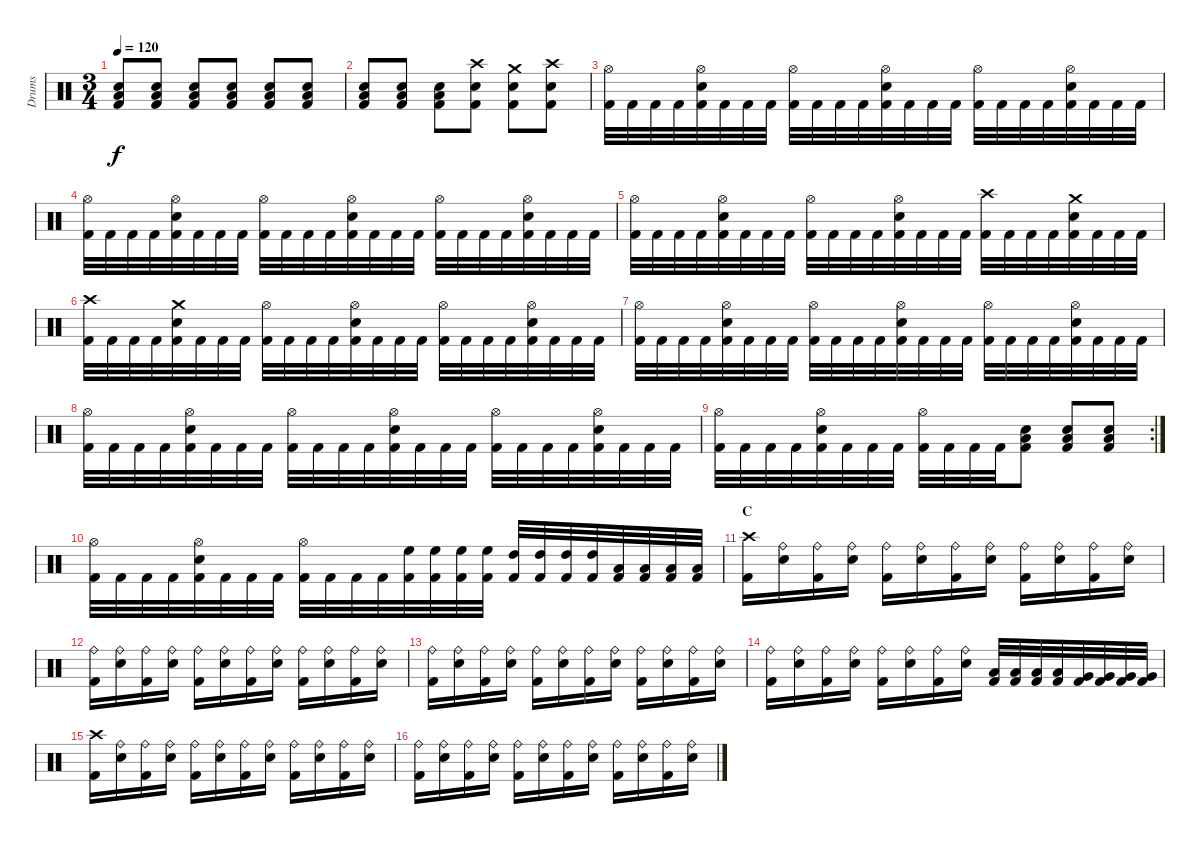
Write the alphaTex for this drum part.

\track ("Drums" "Drums") {instrument percussion}
\staff {score}
\articulation defaults
\ts (3 4)
\tempo 120
\clef neutral
\ks c
("Low Floor Tom (hit)" "Electric Snare (hit)" "Kick (hit) 2").8{dy f} ("Low Floor Tom (hit)" "Electric Snare (hit)" "Kick (hit) 2").8 ("Low Floor Tom (hit)" "Electric Snare (hit)" "Kick (hit) 2").8 ("Low Floor Tom (hit)" "Electric Snare (hit)" "Kick (hit) 2").8 ("Low Floor Tom (hit)" "Electric Snare (hit)" "Kick (hit) 2").8 ("Low Floor Tom (hit)" "Electric Snare (hit)" "Kick (hit) 2").8 |
("Low Floor Tom (hit)" "Electric Snare (hit)" "Kick (hit) 2").8 ("Low Floor Tom (hit)" "Electric Snare (hit)" "Kick (hit) 2").8 ("Low Floor Tom (hit)" "Electric Snare (hit)" "Kick (hit) 2").8 ("Crash high (hit)" "Electric Snare (hit)" "Kick (hit) 2").8 ("Crash medium (hit)" "Electric Snare (hit)" "Kick (hit) 2").8 ("Crash high (hit)" "Electric Snare (hit)" "Kick (hit) 2").8 |
("Hi-Hat (open)" "Kick (hit) 2").32 "Kick (hit) 2".32 "Kick (hit) 2".32 "Kick (hit) 2".32 ("Hi-Hat (open)" "Electric Snare (hit)" "Kick (hit) 2").32 "Kick (hit) 2".32 "Kick (hit) 2".32 "Kick (hit) 2".32 ("Hi-Hat (open)" "Kick (hit) 2").32 "Kick (hit) 2".32 "Kick (hit) 2".32 "Kick (hit) 2".32 ("Hi-Hat (open)" "Electric Snare (hit)" "Kick (hit) 2").32 "Kick (hit) 2".32 "Kick (hit) 2".32 "Kick (hit) 2".32 ("Hi-Hat (open)" "Kick (hit) 2").32 "Kick (hit) 2".32 "Kick (hit) 2".32 "Kick (hit) 2".32 ("Hi-Hat (open)" "Electric Snare (hit)" "Kick (hit) 2").32 "Kick (hit) 2".32 "Kick (hit) 2".32 "Kick (hit) 2".32 |
("Hi-Hat (open)" "Kick (hit) 2").32 "Kick (hit) 2".32 "Kick (hit) 2".32 "Kick (hit) 2".32 ("Hi-Hat (open)" "Electric Snare (hit)" "Kick (hit) 2").32 "Kick (hit) 2".32 "Kick (hit) 2".32 "Kick (hit) 2".32 ("Hi-Hat (open)" "Kick (hit) 2").32 "Kick (hit) 2".32 "Kick (hit) 2".32 "Kick (hit) 2".32 ("Hi-Hat (open)" "Electric Snare (hit)" "Kick (hit) 2").32 "Kick (hit) 2".32 "Kick (hit) 2".32 "Kick (hit) 2".32 ("Hi-Hat (open)" "Kick (hit) 2").32 "Kick (hit) 2".32 "Kick (hit) 2".32 "Kick (hit) 2".32 ("Hi-Hat (open)" "Electric Snare (hit)" "Kick (hit) 2").32 "Kick (hit) 2".32 "Kick (hit) 2".32 "Kick (hit) 2".32 |
("Hi-Hat (open)" "Kick (hit) 2").32 "Kick (hit) 2".32 "Kick (hit) 2".32 "Kick (hit) 2".32 ("Hi-Hat (open)" "Electric Snare (hit)" "Kick (hit) 2").32 "Kick (hit) 2".32 "Kick (hit) 2".32 "Kick (hit) 2".32 ("Hi-Hat (open)" "Kick (hit) 2").32 "Kick (hit) 2".32 "Kick (hit) 2".32 "Kick (hit) 2".32 ("Hi-Hat (open)" "Electric Snare (hit)" "Kick (hit) 2").32 "Kick (hit) 2".32 "Kick (hit) 2".32 "Kick (hit) 2".32 ("Crash high (hit)" "Kick (hit) 2").32 "Kick (hit) 2".32 "Kick (hit) 2".32 "Kick (hit) 2".32 ("Crash medium (hit)" "Electric Snare (hit)" "Kick (hit) 2").32 "Kick (hit) 2".32 "Kick (hit) 2".32 "Kick (hit) 2".32 |
("Crash high (hit)" "Kick (hit) 2").32 "Kick (hit) 2".32 "Kick (hit) 2".32 "Kick (hit) 2".32 ("Crash medium (hit)" "Electric Snare (hit)" "Kick (hit) 2").32 "Kick (hit) 2".32 "Kick (hit) 2".32 "Kick (hit) 2".32 ("Hi-Hat (open)" "Kick (hit) 2").32 "Kick (hit) 2".32 "Kick (hit) 2".32 "Kick (hit) 2".32 ("Hi-Hat (open)" "Electric Snare (hit)" "Kick (hit) 2").32 "Kick (hit) 2".32 "Kick (hit) 2".32 "Kick (hit) 2".32 ("Hi-Hat (open)" "Kick (hit) 2").32 "Kick (hit) 2".32 "Kick (hit) 2".32 "Kick (hit) 2".32 ("Hi-Hat (open)" "Electric Snare (hit)" "Kick (hit) 2").32 "Kick (hit) 2".32 "Kick (hit) 2".32 "Kick (hit) 2".32 |
("Hi-Hat (open)" "Kick (hit) 2").32 "Kick (hit) 2".32 "Kick (hit) 2".32 "Kick (hit) 2".32 ("Hi-Hat (open)" "Electric Snare (hit)" "Kick (hit) 2").32 "Kick (hit) 2".32 "Kick (hit) 2".32 "Kick (hit) 2".32 ("Hi-Hat (open)" "Kick (hit) 2").32 "Kick (hit) 2".32 "Kick (hit) 2".32 "Kick (hit) 2".32 ("Hi-Hat (open)" "Electric Snare (hit)" "Kick (hit) 2").32 "Kick (hit) 2".32 "Kick (hit) 2".32 "Kick (hit) 2".32 ("Hi-Hat (open)" "Kick (hit) 2").32 "Kick (hit) 2".32 "Kick (hit) 2".32 "Kick (hit) 2".32 ("Hi-Hat (open)" "Electric Snare (hit)" "Kick (hit) 2").32 "Kick (hit) 2".32 "Kick (hit) 2".32 "Kick (hit) 2".32 |
("Hi-Hat (open)" "Kick (hit) 2").32 "Kick (hit) 2".32 "Kick (hit) 2".32 "Kick (hit) 2".32 ("Hi-Hat (open)" "Electric Snare (hit)" "Kick (hit) 2").32 "Kick (hit) 2".32 "Kick (hit) 2".32 "Kick (hit) 2".32 ("Hi-Hat (open)" "Kick (hit) 2").32 "Kick (hit) 2".32 "Kick (hit) 2".32 "Kick (hit) 2".32 ("Hi-Hat (open)" "Electric Snare (hit)" "Kick (hit) 2").32 "Kick (hit) 2".32 "Kick (hit) 2".32 "Kick (hit) 2".32 ("Hi-Hat (open)" "Kick (hit) 2").32 "Kick (hit) 2".32 "Kick (hit) 2".32 "Kick (hit) 2".32 ("Hi-Hat (open)" "Electric Snare (hit)" "Kick (hit) 2").32 "Kick (hit) 2".32 "Kick (hit) 2".32 "Kick (hit) 2".32 |
\rc 2
("Hi-Hat (open)" "Kick (hit) 2").32 "Kick (hit) 2".32 "Kick (hit) 2".32 "Kick (hit) 2".32 ("Hi-Hat (open)" "Electric Snare (hit)" "Kick (hit) 2").32 "Kick (hit) 2".32 "Kick (hit) 2".32 "Kick (hit) 2".32 ("Hi-Hat (open)" "Kick (hit) 2").32 "Kick (hit) 2".32 "Kick (hit) 2".32 "Kick (hit) 2".32 ("Electric Snare (hit)" "Low Floor Tom (hit)" "Kick (hit) 2").8 ("Electric Snare (hit)" "Low Floor Tom (hit)" "Kick (hit) 2").8 ("Electric Snare (hit)" "Low Floor Tom (hit)" "Kick (hit) 2").8 |
("Hi-Hat (open)" "Kick (hit) 2").32 "Kick (hit) 2".32 "Kick (hit) 2".32 "Kick (hit) 2".32 ("Hi-Hat (open)" "Electric Snare (hit)" "Kick (hit) 2").32 "Kick (hit) 2".32 "Kick (hit) 2".32 "Kick (hit) 2".32 ("Hi-Hat (open)" "Kick (hit) 2").32 "Kick (hit) 2".32 "Kick (hit) 2".32 "Kick (hit) 2".32 ("Kick (hit) 2" "High Floor Tom (hit)").32 ("Kick (hit) 2" "High Floor Tom (hit)").32 ("Kick (hit) 2" "High Floor Tom (hit)").32 ("Kick (hit) 2" "High Floor Tom (hit)").32 ("Kick (hit) 2" "High Tom (hit)").32 ("Kick (hit) 2" "High Tom (hit)").32 ("Kick (hit) 2" "High Tom (hit)").32 ("Kick (hit) 2" "High Tom (hit)").32 ("Kick (hit) 2" "Low Tom (hit)").32 ("Kick (hit) 2" "Low Tom (hit)").32 ("Kick (hit) 2" "Low Tom (hit)").32 ("Kick (hit) 2" "Low Tom (hit)").32 |
\section ("" "C")
("Crash high (hit)" "Kick (hit) 2").16 ("Ride (bell)" "Electric Snare (hit)").16 ("Ride (bell)" "Kick (hit) 2").16 ("Ride (bell)" "Electric Snare (hit)").16 ("Ride (bell)" "Kick (hit) 2").16 ("Ride (bell)" "Electric Snare (hit)").16 ("Ride (bell)" "Kick (hit) 2").16 ("Ride (bell)" "Electric Snare (hit)").16 ("Ride (bell)" "Kick (hit) 2").16 ("Ride (bell)" "Electric Snare (hit)").16 ("Ride (bell)" "Kick (hit) 2").16 ("Ride (bell)" "Electric Snare (hit)").16 |
("Ride (bell)" "Kick (hit) 2").16 ("Ride (bell)" "Electric Snare (hit)").16 ("Ride (bell)" "Kick (hit) 2").16 ("Ride (bell)" "Electric Snare (hit)").16 ("Ride (bell)" "Kick (hit) 2").16 ("Ride (bell)" "Electric Snare (hit)").16 ("Ride (bell)" "Kick (hit) 2").16 ("Ride (bell)" "Electric Snare (hit)").16 ("Ride (bell)" "Kick (hit) 2").16 ("Ride (bell)" "Electric Snare (hit)").16 ("Ride (bell)" "Kick (hit) 2").16 ("Ride (bell)" "Electric Snare (hit)").16 |
("Ride (bell)" "Kick (hit) 2").16 ("Ride (bell)" "Electric Snare (hit)").16 ("Ride (bell)" "Kick (hit) 2").16 ("Ride (bell)" "Electric Snare (hit)").16 ("Ride (bell)" "Kick (hit) 2").16 ("Ride (bell)" "Electric Snare (hit)").16 ("Ride (bell)" "Kick (hit) 2").16 ("Ride (bell)" "Electric Snare (hit)").16 ("Ride (bell)" "Kick (hit) 2").16 ("Ride (bell)" "Electric Snare (hit)").16 ("Ride (bell)" "Kick (hit) 2").16 ("Ride (bell)" "Electric Snare (hit)").16 |
("Ride (bell)" "Kick (hit) 2").16 ("Ride (bell)" "Electric Snare (hit)").16 ("Ride (bell)" "Kick (hit) 2").16 ("Ride (bell)" "Electric Snare (hit)").16 ("Ride (bell)" "Kick (hit) 2").16 ("Ride (bell)" "Electric Snare (hit)").16 ("Ride (bell)" "Kick (hit) 2").16 ("Ride (bell)" "Electric Snare (hit)").16 ("Kick (hit) 2" "Low Tom (hit)").32 ("Kick (hit) 2" "Low Tom (hit)").32 ("Kick (hit) 2" "Low Tom (hit)").32 ("Kick (hit) 2" "Low Tom (hit)").32 ("Kick (hit) 2" "Very Low Tom (hit)").32 ("Kick (hit) 2" "Very Low Tom (hit)").32 ("Kick (hit) 2" "Very Low Tom (hit)").32 ("Kick (hit) 2" "Very Low Tom (hit)").32 |
("Crash high (hit)" "Kick (hit) 2").16 ("Ride (bell)" "Electric Snare (hit)").16 ("Ride (bell)" "Kick (hit) 2").16 ("Ride (bell)" "Electric Snare (hit)").16 ("Ride (bell)" "Kick (hit) 2").16 ("Ride (bell)" "Electric Snare (hit)").16 ("Ride (bell)" "Kick (hit) 2").16 ("Ride (bell)" "Electric Snare (hit)").16 ("Ride (bell)" "Kick (hit) 2").16 ("Ride (bell)" "Electric Snare (hit)").16 ("Ride (bell)" "Kick (hit) 2").16 ("Ride (bell)" "Electric Snare (hit)").16 |
("Ride (bell)" "Kick (hit) 2").16 ("Ride (bell)" "Electric Snare (hit)").16 ("Ride (bell)" "Kick (hit) 2").16 ("Ride (bell)" "Electric Snare (hit)").16 ("Ride (bell)" "Kick (hit) 2").16 ("Ride (bell)" "Electric Snare (hit)").16 ("Ride (bell)" "Kick (hit) 2").16 ("Ride (bell)" "Electric Snare (hit)").16 ("Ride (bell)" "Kick (hit) 2").16 ("Ride (bell)" "Electric Snare (hit)").16 ("Ride (bell)" "Kick (hit) 2").16 ("Ride (bell)" "Electric Snare (hit)").16
